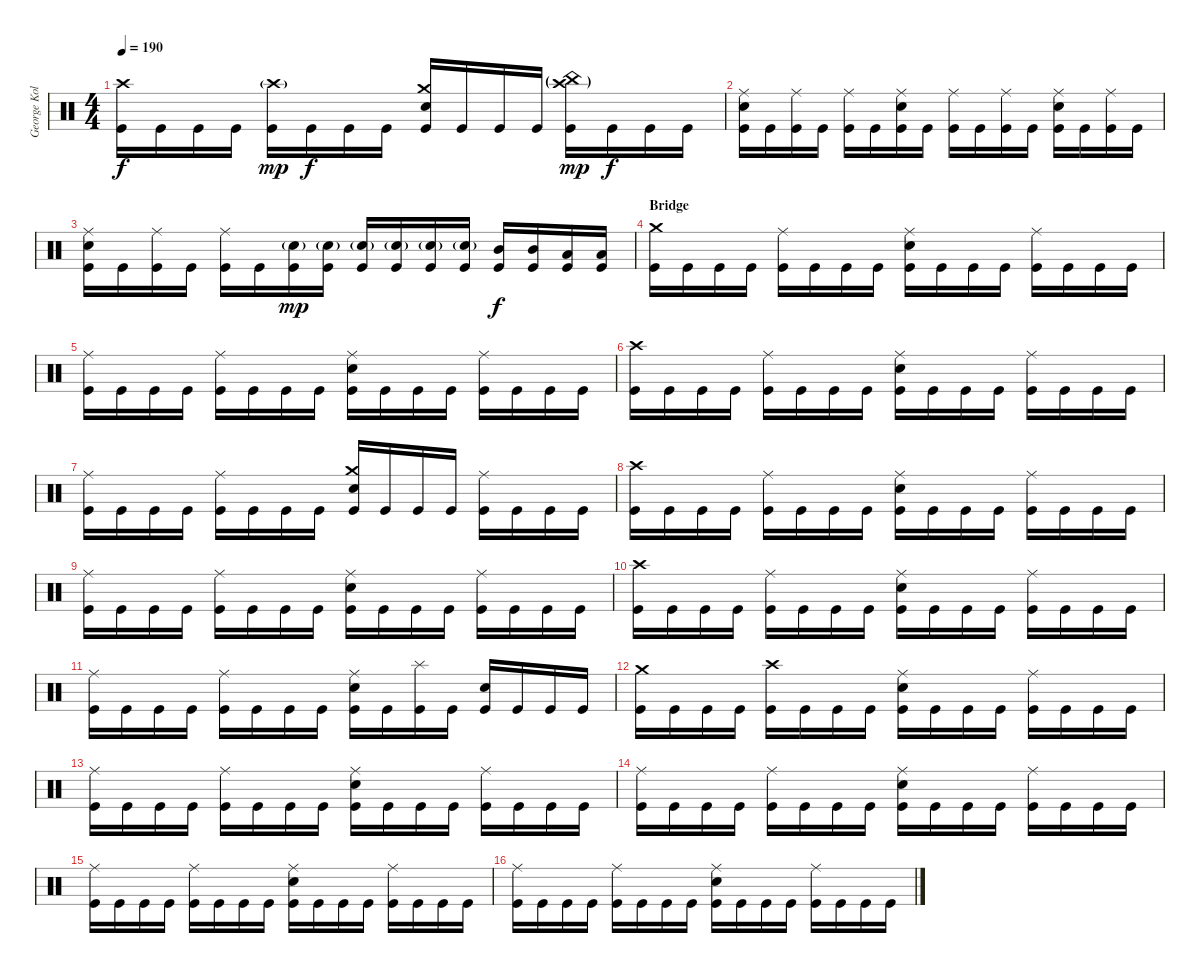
\track ("George Kollias" "George Kol") {instrument percussion}
\staff {score}
\articulation defaults
\ts (4 4)
\tempo 190
\clef neutral
\ks c
("Crash high (hit)" "Kick (hit)").16{dy f} "Kick (hit)".16 "Kick (hit)".16 "Kick (hit)".16 ("Crash high (hit)"{g} "Kick (hit)").16{dy mp} "Kick (hit)".16{dy f} "Kick (hit)".16 "Kick (hit)".16 ("Crash medium (hit)" "Snare (hit) 2" "Kick (hit)").16 "Kick (hit)".16 "Kick (hit)".16 "Kick (hit)".16 ("Crash high (hit)"{g} "China (hit)"{g} "Kick (hit)").16{dy mp} "Kick (hit)".16{dy f} "Kick (hit)".16 "Kick (hit)".16 |
("Ride (middle)" "Snare (hit) 2" "Kick (hit)").16 "Kick (hit)".16 ("Ride (middle)" "Kick (hit)").16 "Kick (hit)".16 ("Ride (middle)" "Kick (hit)").16 "Kick (hit)".16 ("Ride (middle)" "Snare (hit) 2" "Kick (hit)").16 "Kick (hit)".16 ("Ride (middle)" "Kick (hit)").16 "Kick (hit)".16 ("Ride (middle)" "Kick (hit)").16 "Kick (hit)".16 ("Ride (middle)" "Snare (hit) 2" "Kick (hit)").16 "Kick (hit)".16 ("Ride (middle)" "Kick (hit)").16 "Kick (hit)".16 |
("Ride (middle)" "Snare (hit) 2" "Kick (hit)").16 "Kick (hit)".16 ("Ride (middle)" "Kick (hit)").16 "Kick (hit)".16 ("Ride (middle)" "Kick (hit)").16 "Kick (hit)".16 ("Snare (hit) 2"{g} "Kick (hit)").16{dy mp} ("Snare (hit) 2"{g} "Kick (hit)").16 ("Snare (hit) 2"{g} "Kick (hit)").16 ("Snare (hit) 2"{g} "Kick (hit)").16 ("Snare (hit) 2"{g} "Kick (hit)").16 ("Snare (hit) 2"{g} "Kick (hit)").16 ("Mid Tom (hit)" "Kick (hit)").16{dy f} ("Mid Tom (hit)" "Kick (hit)").16 ("Low Tom (hit)" "Kick (hit)").16 ("Low Tom (hit)" "Kick (hit)").16 |
\section ("" "Bridge")
("Crash medium (hit)" "Kick (hit)").16 "Kick (hit)".16 "Kick (hit)".16 "Kick (hit)".16 ("Ride (middle)" "Kick (hit)").16 "Kick (hit)".16 "Kick (hit)".16 "Kick (hit)".16 ("Ride (middle)" "Snare (hit) 2" "Kick (hit)").16 "Kick (hit)".16 "Kick (hit)".16 "Kick (hit)".16 ("Ride (middle)" "Kick (hit)").16 "Kick (hit)".16 "Kick (hit)".16 "Kick (hit)".16 |
("Ride (middle)" "Kick (hit)").16 "Kick (hit)".16 "Kick (hit)".16 "Kick (hit)".16 ("Ride (middle)" "Kick (hit)").16 "Kick (hit)".16 "Kick (hit)".16 "Kick (hit)".16 ("Ride (middle)" "Snare (hit) 2" "Kick (hit)").16 "Kick (hit)".16 "Kick (hit)".16 "Kick (hit)".16 ("Ride (middle)" "Kick (hit)").16 "Kick (hit)".16 "Kick (hit)".16 "Kick (hit)".16 |
("Crash high (hit)" "Kick (hit)").16 "Kick (hit)".16 "Kick (hit)".16 "Kick (hit)".16 ("Ride (middle)" "Kick (hit)").16 "Kick (hit)".16 "Kick (hit)".16 "Kick (hit)".16 ("Ride (middle)" "Snare (hit) 2" "Kick (hit)").16 "Kick (hit)".16 "Kick (hit)".16 "Kick (hit)".16 ("Ride (middle)" "Kick (hit)").16 "Kick (hit)".16 "Kick (hit)".16 "Kick (hit)".16 |
("Ride (middle)" "Kick (hit)").16 "Kick (hit)".16 "Kick (hit)".16 "Kick (hit)".16 ("Ride (middle)" "Kick (hit)").16 "Kick (hit)".16 "Kick (hit)".16 "Kick (hit)".16 ("Crash medium (hit)" "Snare (hit) 2" "Kick (hit)").16 "Kick (hit)".16 "Kick (hit)".16 "Kick (hit)".16 ("Ride (middle)" "Kick (hit)").16 "Kick (hit)".16 "Kick (hit)".16 "Kick (hit)".16 |
("Crash high (hit)" "Kick (hit)").16 "Kick (hit)".16 "Kick (hit)".16 "Kick (hit)".16 ("Ride (middle)" "Kick (hit)").16 "Kick (hit)".16 "Kick (hit)".16 "Kick (hit)".16 ("Ride (middle)" "Snare (hit) 2" "Kick (hit)").16 "Kick (hit)".16 "Kick (hit)".16 "Kick (hit)".16 ("Ride (middle)" "Kick (hit)").16 "Kick (hit)".16 "Kick (hit)".16 "Kick (hit)".16 |
("Ride (middle)" "Kick (hit)").16 "Kick (hit)".16 "Kick (hit)".16 "Kick (hit)".16 ("Ride (middle)" "Kick (hit)").16 "Kick (hit)".16 "Kick (hit)".16 "Kick (hit)".16 ("Ride (middle)" "Snare (hit) 2" "Kick (hit)").16 "Kick (hit)".16 "Kick (hit)".16 "Kick (hit)".16 ("Ride (middle)" "Kick (hit)").16 "Kick (hit)".16 "Kick (hit)".16 "Kick (hit)".16 |
("Crash high (hit)" "Kick (hit)").16 "Kick (hit)".16 "Kick (hit)".16 "Kick (hit)".16 ("Ride (middle)" "Kick (hit)").16 "Kick (hit)".16 "Kick (hit)".16 "Kick (hit)".16 ("Ride (middle)" "Snare (hit) 2" "Kick (hit)").16 "Kick (hit)".16 "Kick (hit)".16 "Kick (hit)".16 ("Ride (middle)" "Kick (hit)").16 "Kick (hit)".16 "Kick (hit)".16 "Kick (hit)".16 |
("Ride (middle)" "Kick (hit)").16 "Kick (hit)".16 "Kick (hit)".16 "Kick (hit)".16 ("Ride (middle)" "Kick (hit)").16 "Kick (hit)".16 "Kick (hit)".16 "Kick (hit)".16 ("Ride (middle)" "Snare (hit) 2" "Kick (hit)").16 "Kick (hit)".16 ("Splash (hit)" "Kick (hit)").16 "Kick (hit)".16 ("Snare (hit) 2" "Kick (hit)").16 "Kick (hit)".16 "Kick (hit)".16 "Kick (hit)".16 |
("Crash medium (hit)" "Kick (hit)").16 "Kick (hit)".16 "Kick (hit)".16 "Kick (hit)".16 ("Crash high (hit)" "Kick (hit)").16 "Kick (hit)".16 "Kick (hit)".16 "Kick (hit)".16 ("Ride (middle)" "Snare (hit) 2" "Kick (hit)").16 "Kick (hit)".16 "Kick (hit)".16 "Kick (hit)".16 ("Ride (middle)" "Kick (hit)").16 "Kick (hit)".16 "Kick (hit)".16 "Kick (hit)".16 |
("Ride (middle)" "Kick (hit)").16 "Kick (hit)".16 "Kick (hit)".16 "Kick (hit)".16 ("Ride (middle)" "Kick (hit)").16 "Kick (hit)".16 "Kick (hit)".16 "Kick (hit)".16 ("Ride (middle)" "Snare (hit) 2" "Kick (hit)").16 "Kick (hit)".16 "Kick (hit)".16 "Kick (hit)".16 ("Ride (middle)" "Kick (hit)").16 "Kick (hit)".16 "Kick (hit)".16 "Kick (hit)".16 |
("Ride (middle)" "Kick (hit)").16 "Kick (hit)".16 "Kick (hit)".16 "Kick (hit)".16 ("Ride (middle)" "Kick (hit)").16 "Kick (hit)".16 "Kick (hit)".16 "Kick (hit)".16 ("Ride (middle)" "Snare (hit) 2" "Kick (hit)").16 "Kick (hit)".16 "Kick (hit)".16 "Kick (hit)".16 ("Ride (middle)" "Kick (hit)").16 "Kick (hit)".16 "Kick (hit)".16 "Kick (hit)".16 |
("Ride (middle)" "Kick (hit)").16 "Kick (hit)".16 "Kick (hit)".16 "Kick (hit)".16 ("Ride (middle)" "Kick (hit)").16 "Kick (hit)".16 "Kick (hit)".16 "Kick (hit)".16 ("Ride (middle)" "Snare (hit) 2" "Kick (hit)").16 "Kick (hit)".16 "Kick (hit)".16 "Kick (hit)".16 ("Ride (middle)" "Kick (hit)").16 "Kick (hit)".16 "Kick (hit)".16 "Kick (hit)".16 |
("Ride (middle)" "Kick (hit)").16 "Kick (hit)".16 "Kick (hit)".16 "Kick (hit)".16 ("Ride (middle)" "Kick (hit)").16 "Kick (hit)".16 "Kick (hit)".16 "Kick (hit)".16 ("Ride (middle)" "Snare (hit) 2" "Kick (hit)").16 "Kick (hit)".16 "Kick (hit)".16 "Kick (hit)".16 ("Ride (middle)" "Kick (hit)").16 "Kick (hit)".16 "Kick (hit)".16 "Kick (hit)".16
